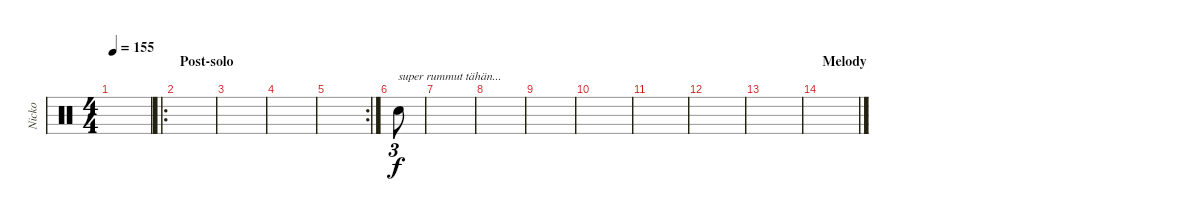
\track ("Nicko" "Nicko") {instrument percussion}
\staff {score}
\articulation defaults
\ts (4 4)
\tempo 155
\clef neutral
\ks c
|
\ro
\section ("" "Post-solo")
|
|
|
\rc 2
|
"Snare (hit)".8{tu (3 2) txt "super rummut tähän..."} |
|
|
|
|
|
|
|
\section ("" "Melody")
